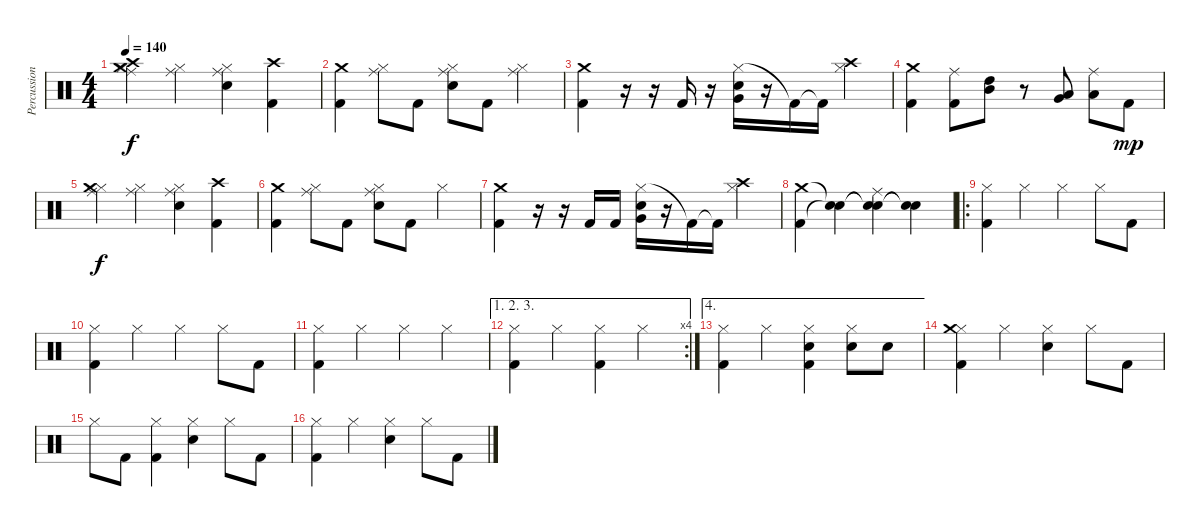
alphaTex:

\track ("Percussion" "Percussion") {instrument percussion}
\staff {score}
\articulation defaults
\ts (4 4)
\tempo 140
\clef neutral
\ks c
("Hi-Hat (closed)" "Crash medium (hit)" "Crash high (hit)" "Ride (middle)").4{dy f} ("Hi-Hat (closed)" "Ride (middle)").4 ("Hi-Hat (closed)" "Electric Snare (hit)" "Ride (middle)").4 ("Crash high (hit)" "Kick (hit) 2").4 |
("Crash medium (hit)" "Kick (hit) 2").4 ("Hi-Hat (closed)" "Ride (middle)").8 "Kick (hit) 2".8 ("Hi-Hat (closed)" "Electric Snare (hit)" "Ride (middle)").8 "Kick (hit) 2".8 ("Hi-Hat (closed)" "Ride (middle)").4 |
("Crash medium (hit)" "Kick (hit) 2").4 r.16 r.16 "Kick (hit) 2".16 r.16 ("Hi-Hat (closed)" "Very Low Tom (hit)" "Electric Snare (hit)").16 r.16 "Kick (hit) 2"{t}.16 "Kick (hit) 2"{t}.16 ("Hi-Hat (closed)" "Crash high (hit)").4 |
("Crash medium (hit)" "Kick (hit) 2").4 ("Kick (hit) 2" "Ride (middle)").8 ("High Tom (hit)" "Mid Tom (hit)").8 r.8 ("Low Tom (hit)" "Very Low Tom (hit)").8 ("Low Floor Tom (hit)" "Ride (middle)").8 "Kick (hit) 2".8{dy mp} |
("Hi-Hat (closed)" "Crash medium (hit)" "Ride (middle)").4{dy f} ("Hi-Hat (closed)" "Ride (middle)").4 ("Hi-Hat (closed)" "Electric Snare (hit)" "Ride (middle)").4 ("Crash high (hit)" "Kick (hit) 2").4 |
("Crash medium (hit)" "Kick (hit) 2").4 ("Hi-Hat (closed)" "Ride (middle)").8 "Kick (hit) 2".8 ("Hi-Hat (closed)" "Electric Snare (hit)" "Ride (middle)").8 "Kick (hit) 2".8 "Hi-Hat (closed)".4 |
("Crash medium (hit)" "Kick (hit) 2").4 r.16 r.16 "Kick (hit) 2".16 "Kick (hit) 2".16 ("Hi-Hat (closed)" "Very Low Tom (hit)" "Electric Snare (hit)").16 r.16 "Kick (hit) 2"{t}.16 "Kick (hit) 2"{t}.16 ("Hi-Hat (closed)" "Crash high (hit)").4 |
("Crash medium (hit)" "Kick (hit) 2").4 ("Snare (hit)"{t} "Snare (hit)"{t}).4 ("Snare (hit)"{t} "Snare (hit)"{t} "Ride (middle)").4 ("Snare (hit)"{t} "Snare (hit)"{t}).4 |
\ro
("Hi-Hat (closed)" "Kick (hit) 2").4 "Hi-Hat (closed)".4 "Hi-Hat (closed)".4 "Hi-Hat (closed)".8 "Kick (hit) 2".8 |
("Hi-Hat (closed)" "Kick (hit) 2").4 "Hi-Hat (closed)".4 "Hi-Hat (closed)".4 "Hi-Hat (closed)".8 "Kick (hit) 2".8 |
("Hi-Hat (closed)" "Kick (hit) 2").4 "Hi-Hat (closed)".4 "Hi-Hat (closed)".4 "Hi-Hat (closed)".4 |
\ae (1 2 3)
\rc 4
("Hi-Hat (closed)" "Kick (hit) 2").4 "Hi-Hat (closed)".4 ("Hi-Hat (closed)" "Kick (hit) 2").4 "Hi-Hat (closed)".4 |
\ae 4
("Hi-Hat (closed)" "Kick (hit) 2").4 "Hi-Hat (closed)".4 ("Hi-Hat (closed)" "Kick (hit) 2" "Electric Snare (hit)").4 ("Hi-Hat (closed)" "Electric Snare (hit)").8 "Electric Snare (hit)".8 |
("Hi-Hat (closed)" "Kick (hit) 2" "Crash medium (hit)").4 "Hi-Hat (closed)".4 ("Hi-Hat (closed)" "Electric Snare (hit)").4 "Hi-Hat (closed)".8 "Kick (hit) 2".8 |
"Hi-Hat (closed)".8 "Kick (hit) 2".8 ("Hi-Hat (closed)" "Kick (hit) 2").4 ("Hi-Hat (closed)" "Electric Snare (hit)").4 "Hi-Hat (closed)".8 "Kick (hit) 2".8 |
("Hi-Hat (closed)" "Kick (hit) 2").4 "Hi-Hat (closed)".4 ("Hi-Hat (closed)" "Electric Snare (hit)").4 "Hi-Hat (closed)".8 "Kick (hit) 2".8
